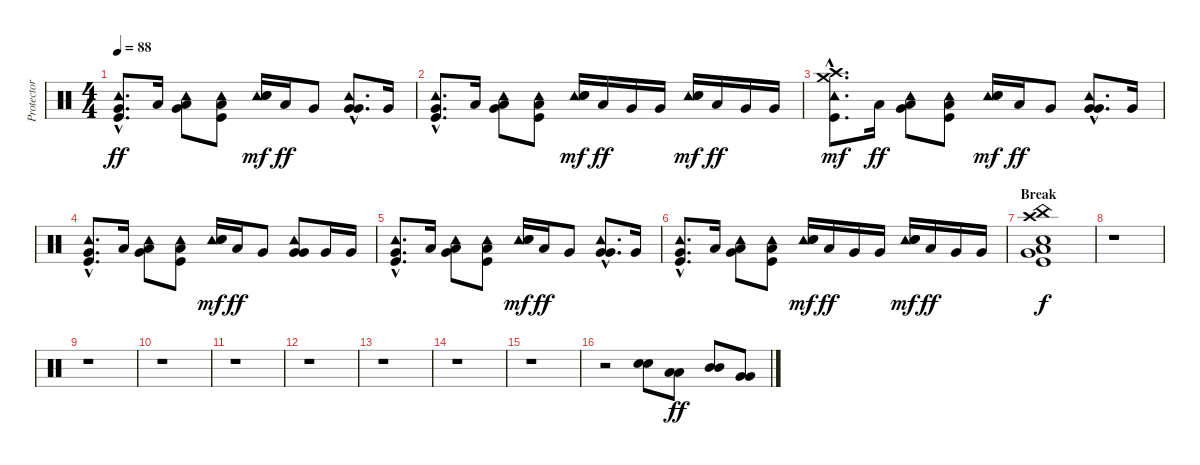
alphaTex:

\track ("Protector (Drums)" "Protector ") {instrument percussion}
\staff {score}
\articulation defaults
\ts (4 4)
\tempo 88
\clef neutral
\ks c
("Tambourine (hit)"{hac} "Very Low Tom (hit)"{hac} "Kick (hit)"{hac}).8{d dy ff} "Low Tom (hit)".16 ("Tambourine (hit)" "Low Tom (hit)" "Very Low Tom (hit)").8{bu 120} ("Tambourine (hit)" "Low Floor Tom (hit)" "Kick (hit)").8 ("Tambourine (hit)" "Snare (hit) 2" "Electric Snare (hit)").16{dy mf} "Low Tom (hit)".16{dy ff} "Very Low Tom (hit)".8 ("Tambourine (hit)"{hac} "Very Low Tom (hit)"{hac} "Very Low Tom (hit)"{hac}).8{d bu 120} "Very Low Tom (hit)".16 |
("Tambourine (hit)"{hac} "Very Low Tom (hit)"{hac} "Kick (hit)"{hac}).8{d} "Low Tom (hit)".16 ("Tambourine (hit)" "Low Tom (hit)" "Very Low Tom (hit)").8{bu 120} ("Tambourine (hit)" "Low Floor Tom (hit)" "Kick (hit)").8 ("Tambourine (hit)" "Electric Snare (hit)" "Snare (hit) 2").16{dy mf} "Low Tom (hit)".16{dy ff} "Very Low Tom (hit)".16 "Very Low Tom (hit)".16 ("Tambourine (hit)" "Electric Snare (hit)" "Snare (hit) 2").16{dy mf} "Low Tom (hit)".16{dy ff} "Very Low Tom (hit)".16 "Very Low Tom (hit)".16 |
("Crash high (hit)"{hac} "Crash medium (hit)"{hac} "Tambourine (hit)"{hac} "Kick (hit)"{hac}).8{d dy mf} "Low Tom (hit)".16{dy ff} ("Tambourine (hit)" "Low Tom (hit)" "Very Low Tom (hit)").8{bu 120} ("Tambourine (hit)" "Low Floor Tom (hit)" "Kick (hit)").8 ("Tambourine (hit)" "Snare (hit) 2" "Electric Snare (hit)").16{dy mf} "Low Tom (hit)".16{dy ff} "Very Low Tom (hit)".8 ("Tambourine (hit)"{hac} "Very Low Tom (hit)"{hac} "Very Low Tom (hit)"{hac}).8{d bu 120} "Very Low Tom (hit)".16 |
("Tambourine (hit)"{hac} "Very Low Tom (hit)"{hac} "Kick (hit)"{hac}).8{d} "Low Tom (hit)".16 ("Tambourine (hit)" "Low Tom (hit)" "Very Low Tom (hit)").8{bu 120} ("Tambourine (hit)" "Low Floor Tom (hit)" "Kick (hit)").8 ("Tambourine (hit)" "Snare (hit) 2" "Electric Snare (hit)").16{dy mf} "Low Tom (hit)".16{dy ff} "Very Low Tom (hit)".8 ("Tambourine (hit)" "Very Low Tom (hit)" "Very Low Tom (hit)").8{bu 120} "Very Low Tom (hit)".16 "Very Low Tom (hit)".16 |
("Tambourine (hit)"{hac} "Very Low Tom (hit)"{hac} "Kick (hit)"{hac}).8{d} "Low Tom (hit)".16 ("Tambourine (hit)" "Low Tom (hit)" "Very Low Tom (hit)").8{bu 120} ("Tambourine (hit)" "Low Floor Tom (hit)" "Kick (hit)").8 ("Tambourine (hit)" "Snare (hit) 2" "Electric Snare (hit)").16{dy mf} "Low Tom (hit)".16{dy ff} "Very Low Tom (hit)".8 ("Tambourine (hit)"{hac} "Very Low Tom (hit)"{hac} "Very Low Tom (hit)"{hac}).8{d bu 120} "Very Low Tom (hit)".16 |
("Tambourine (hit)"{hac} "Very Low Tom (hit)"{hac} "Kick (hit)"{hac}).8{d} "Low Tom (hit)".16 ("Tambourine (hit)" "Low Tom (hit)" "Very Low Tom (hit)").8{bu 120} ("Tambourine (hit)" "Low Floor Tom (hit)" "Kick (hit)").8 ("Tambourine (hit)" "Electric Snare (hit)" "Snare (hit) 2").16{dy mf} "Low Tom (hit)".16{dy ff} "Very Low Tom (hit)".16 "Very Low Tom (hit)".16 ("Tambourine (hit)" "Electric Snare (hit)" "Snare (hit) 2").16{dy mf} "Low Tom (hit)".16{dy ff} "Very Low Tom (hit)".16 "Very Low Tom (hit)".16 |
\section ("" "Break")
("Crash high (hit)" "China (hit)" "Low Tom (hit)" "Very Low Tom (hit)" "Snare (hit) 2" "Kick (hit)").1{dy f} |
r.1 |
r.1 |
r.1 |
r.1 |
r.1 |
r.1 |
r.1 |
r.1 |
r.2 ("Electric Snare (hit)" "Snare (hit) 2").8 ("Low Tom (hit)" "Low Tom (hit)").8{bu 120 dy ff} ("Mid Tom (hit)" "Mid Tom (hit)").8{bu 120} ("Very Low Tom (hit)" "Very Low Tom (hit)").8{bu 120}
